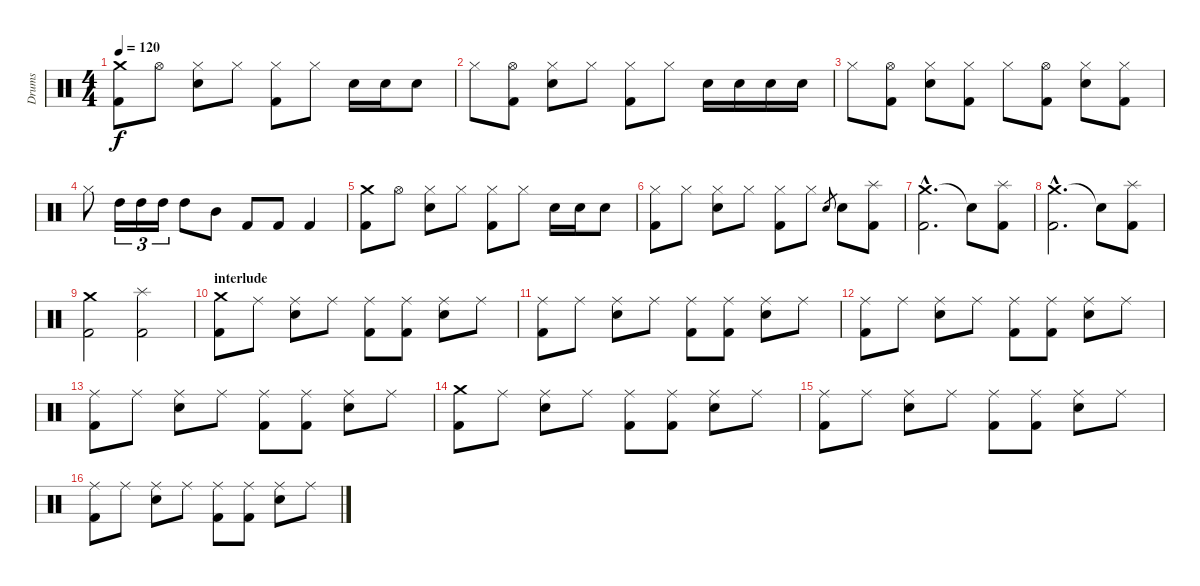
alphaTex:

\track ("Drums" "Drums") {instrument percussion}
\staff {score}
\articulation defaults
\ts (4 4)
\tempo 120
\clef neutral
\ks c
("Crash medium (hit)" "Kick (hit) 2").8{dy f} "Hi-Hat (open)".8 ("Hi-Hat (closed)" "Snare (hit) 2").8 "Hi-Hat (closed)".8 ("Hi-Hat (closed)" "Kick (hit) 2").8 "Hi-Hat (closed)".8 "Snare (hit) 2".16 "Snare (hit) 2".16 "Snare (hit) 2".8 |
"Hi-Hat (closed)".8 ("Hi-Hat (open)" "Kick (hit) 2").8 ("Hi-Hat (closed)" "Snare (hit) 2").8 "Hi-Hat (closed)".8 ("Hi-Hat (closed)" "Kick (hit) 2").8 "Hi-Hat (closed)".8 "Snare (hit) 2".16 "Snare (hit) 2".16 "Snare (hit) 2".16 "Snare (hit) 2".16 |
"Hi-Hat (closed)".8 ("Hi-Hat (open)" "Kick (hit) 2").8 ("Hi-Hat (closed)" "Snare (hit) 2").8 ("Hi-Hat (closed)" "Kick (hit) 2").8 "Hi-Hat (closed)".8 ("Hi-Hat (open)" "Kick (hit) 2").8 ("Hi-Hat (closed)" "Snare (hit) 2").8 ("Hi-Hat (closed)" "Kick (hit) 2").8 |
"Hi-Hat (closed)".8 "High Tom (hit)".16{tu (3 2)} "High Tom (hit)".16{tu (3 2)} "High Tom (hit)".16{tu (3 2)} "High Tom (hit)".8 "Mid Tom (hit)".8 "Kick (hit) 2".8 "Kick (hit) 2".8 "Kick (hit) 2".4 |
("Crash medium (hit)" "Kick (hit) 2").8 "Hi-Hat (open)".8 ("Hi-Hat (closed)" "Snare (hit) 2").8 "Hi-Hat (closed)".8 ("Hi-Hat (closed)" "Kick (hit) 2").8 "Hi-Hat (closed)".8 "Snare (hit) 2".16 "Snare (hit) 2".16 "Snare (hit) 2".8 |
("Hi-Hat (closed)" "Kick (hit) 2").8 "Hi-Hat (closed)".8 ("Hi-Hat (closed)" "Snare (hit) 2").8 "Hi-Hat (closed)".8 ("Hi-Hat (closed)" "Kick (hit) 2").8 "Hi-Hat (closed)".8 "Snare (hit) 2".8{gr} "Snare (hit) 2".8 ("Splash (hit)" "Kick (hit) 2").8 |
("Crash medium (hit)"{hac} "Kick (hit) 2"{hac}).2{d} "Snare (hit)"{t}.8 ("Splash (hit)" "Kick (hit) 2").8 |
("Crash medium (hit)"{hac} "Kick (hit) 2"{hac}).2{d} "Snare (hit)"{t}.8 ("Splash (hit)" "Kick (hit) 2").8 |
("Crash medium (hit)" "Kick (hit) 2").2 ("Splash (hit)" "Kick (hit) 2").2 |
\section ("" "interlude")
("Crash medium (hit)" "Kick (hit) 2").8 "Ride (middle)".8 ("Ride (middle)" "Snare (hit) 2").8 "Ride (middle)".8 ("Ride (middle)" "Kick (hit) 2").8 ("Ride (middle)" "Kick (hit) 2").8 ("Ride (middle)" "Snare (hit) 2").8 "Ride (middle)".8 |
("Ride (middle)" "Kick (hit) 2").8 "Ride (middle)".8 ("Ride (middle)" "Snare (hit) 2").8 "Ride (middle)".8 ("Ride (middle)" "Kick (hit) 2").8 ("Ride (middle)" "Kick (hit) 2").8 ("Ride (middle)" "Snare (hit) 2").8 "Ride (middle)".8 |
("Ride (middle)" "Kick (hit) 2").8 "Ride (middle)".8 ("Ride (middle)" "Snare (hit) 2").8 "Ride (middle)".8 ("Ride (middle)" "Kick (hit) 2").8 ("Ride (middle)" "Kick (hit) 2").8 ("Ride (middle)" "Snare (hit) 2").8 "Ride (middle)".8 |
("Ride (middle)" "Kick (hit) 2").8 "Ride (middle)".8 ("Ride (middle)" "Snare (hit) 2").8 "Ride (middle)".8 ("Ride (middle)" "Kick (hit) 2").8 ("Ride (middle)" "Kick (hit) 2").8 ("Ride (middle)" "Snare (hit) 2").8 "Ride (middle)".8 |
("Crash medium (hit)" "Kick (hit) 2").8 "Ride (middle)".8 ("Ride (middle)" "Snare (hit) 2").8 "Ride (middle)".8 ("Ride (middle)" "Kick (hit) 2").8 ("Ride (middle)" "Kick (hit) 2").8 ("Ride (middle)" "Snare (hit) 2").8 "Ride (middle)".8 |
("Ride (middle)" "Kick (hit) 2").8 "Ride (middle)".8 ("Ride (middle)" "Snare (hit) 2").8 "Ride (middle)".8 ("Ride (middle)" "Kick (hit) 2").8 ("Ride (middle)" "Kick (hit) 2").8 ("Ride (middle)" "Snare (hit) 2").8 "Ride (middle)".8 |
("Ride (middle)" "Kick (hit) 2").8 "Ride (middle)".8 ("Ride (middle)" "Snare (hit) 2").8 "Ride (middle)".8 ("Ride (middle)" "Kick (hit) 2").8 ("Ride (middle)" "Kick (hit) 2").8 ("Ride (middle)" "Snare (hit) 2").8 "Ride (middle)".8
